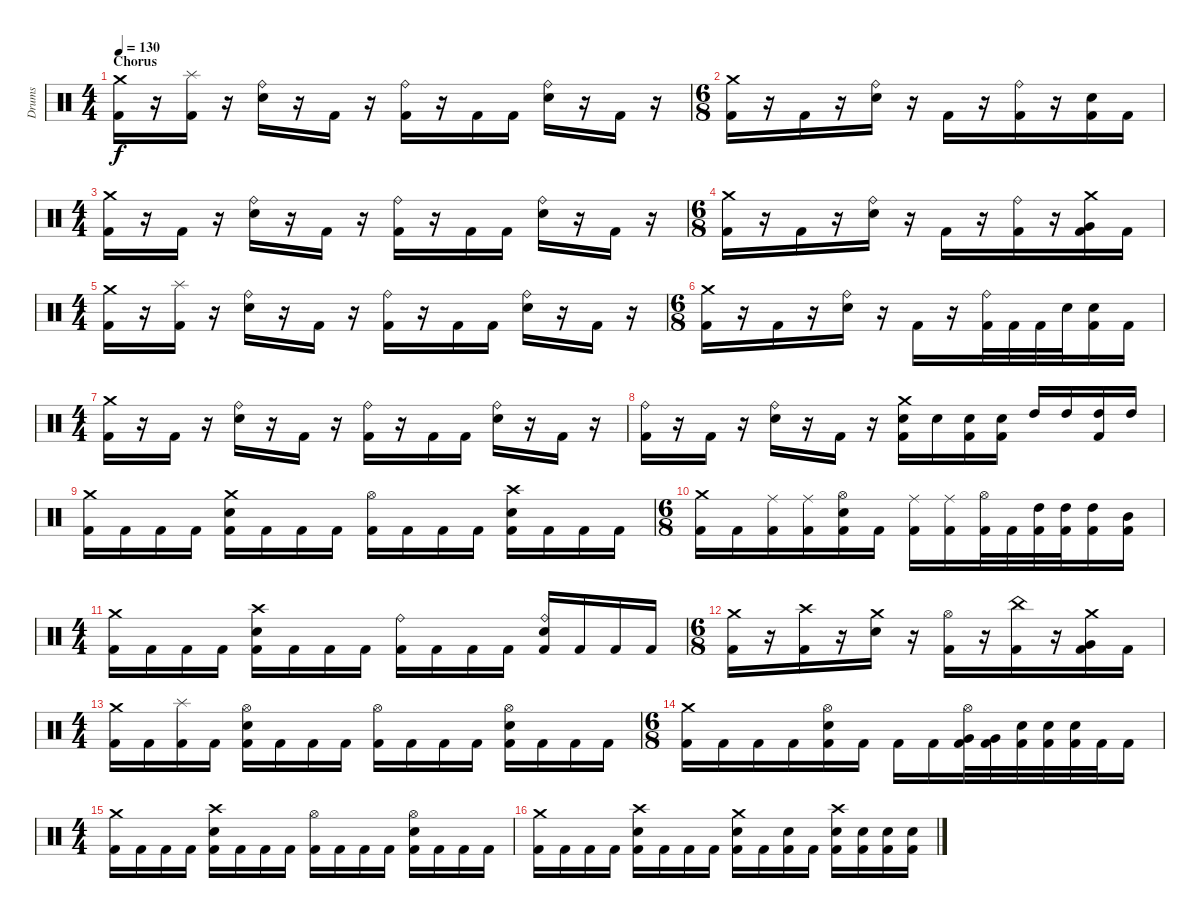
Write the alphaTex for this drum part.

\track ("Drums" "Drums") {instrument percussion}
\staff {score}
\articulation defaults
\ts (4 4)
\section ("" "Chorus")
\tempo 130
\clef neutral
\ks c
("Crash medium (hit)" "Kick (hit) 2").16{dy f} r.16 ("Splash (hit)" "Kick (hit) 2").16 r.16 ("Ride (bell)" "Electric Snare (hit)").16 r.16 "Kick (hit) 2".16 r.16 ("Ride (bell)" "Kick (hit) 2").16 r.16 "Kick (hit) 2".16 "Kick (hit) 2".16 ("Ride (bell)" "Electric Snare (hit)").16 r.16 "Kick (hit) 2".16 r.16 |
\ts (6 8)
("Crash medium (hit)" "Kick (hit) 2").16 r.16 "Kick (hit) 2".16 r.16 ("Ride (bell)" "Electric Snare (hit)").16 r.16 "Kick (hit) 2".16 r.16 ("Ride (bell)" "Kick (hit) 2").16 r.16 ("Electric Snare (hit)" "Kick (hit) 2").16 "Kick (hit) 2".16 |
\ts (4 4)
("Crash medium (hit)" "Kick (hit) 2").16 r.16 "Kick (hit) 2".16 r.16 ("Ride (bell)" "Electric Snare (hit)").16 r.16 "Kick (hit) 2".16 r.16 ("Ride (bell)" "Kick (hit) 2").16 r.16 "Kick (hit) 2".16 "Kick (hit) 2".16 ("Ride (bell)" "Electric Snare (hit)").16 r.16 "Kick (hit) 2".16 r.16 |
\ts (6 8)
("Crash medium (hit)" "Kick (hit) 2").16 r.16 "Kick (hit) 2".16 r.16 ("Ride (bell)" "Electric Snare (hit)").16 r.16 "Kick (hit) 2".16 r.16 ("Ride (bell)" "Kick (hit) 2").16 r.16 ("Crash medium (hit)" "Very Low Tom (hit)" "Kick (hit) 2").16 "Kick (hit) 2".16 |
\ts (4 4)
("Crash medium (hit)" "Kick (hit) 2").16 r.16 ("Splash (hit)" "Kick (hit) 2").16 r.16 ("Ride (bell)" "Electric Snare (hit)").16 r.16 "Kick (hit) 2".16 r.16 ("Ride (bell)" "Kick (hit) 2").16 r.16 "Kick (hit) 2".16 "Kick (hit) 2".16 ("Ride (bell)" "Electric Snare (hit)").16 r.16 "Kick (hit) 2".16 r.16 |
\ts (6 8)
("Crash medium (hit)" "Kick (hit) 2").16 r.16 "Kick (hit) 2".16 r.16 ("Ride (bell)" "Electric Snare (hit)").16 r.16 "Kick (hit) 2".16 r.16 ("Ride (bell)" "Kick (hit) 2").32 "Kick (hit) 2".32 "Kick (hit) 2".32 "Electric Snare (hit)".32 ("Electric Snare (hit)" "Kick (hit) 2").16 "Kick (hit) 2".16 |
\ts (4 4)
("Crash medium (hit)" "Kick (hit) 2").16 r.16 "Kick (hit) 2".16 r.16 ("Ride (bell)" "Electric Snare (hit)").16 r.16 "Kick (hit) 2".16 r.16 ("Ride (bell)" "Kick (hit) 2").16 r.16 "Kick (hit) 2".16 "Kick (hit) 2".16 ("Ride (bell)" "Electric Snare (hit)").16 r.16 "Kick (hit) 2".16 r.16 |
("Ride (bell)" "Kick (hit) 2").16 r.16 "Kick (hit) 2".16 r.16 ("Ride (bell)" "Electric Snare (hit)").16 r.16 "Kick (hit) 2".16 r.16 ("Crash medium (hit)" "Electric Snare (hit)" "Kick (hit) 2").16 "Electric Snare (hit)".16 ("Electric Snare (hit)" "Kick (hit) 2").16 ("Electric Snare (hit)" "Kick (hit) 2").16 "High Tom (hit)".16 "High Tom (hit)".16 ("High Tom (hit)" "Kick (hit) 2").16 "High Tom (hit)".16 |
("Crash medium (hit)" "Kick (hit) 2").16 "Kick (hit) 2".16 "Kick (hit) 2".16 "Kick (hit) 2".16 ("Crash medium (hit)" "Electric Snare (hit)" "Kick (hit) 2").16 "Kick (hit) 2".16 "Kick (hit) 2".16 "Kick (hit) 2".16 ("Hi-Hat (open)" "Kick (hit) 2").16 "Kick (hit) 2".16 "Kick (hit) 2".16 "Kick (hit) 2".16 ("Crash high (hit)" "Electric Snare (hit)" "Kick (hit) 2").16 "Kick (hit) 2".16 "Kick (hit) 2".16 "Kick (hit) 2".16 |
\ts (6 8)
("Crash medium (hit)" "Kick (hit) 2").16 "Kick (hit) 2".16 ("Ride (middle)" "Kick (hit) 2").16 ("Ride (middle)" "Kick (hit) 2").16 ("Hi-Hat (open)" "Electric Snare (hit)" "Kick (hit) 2").16 "Kick (hit) 2".16 ("Ride (middle)" "Kick (hit) 2").16 ("Ride (middle)" "Kick (hit) 2").16 ("Hi-Hat (open)" "Kick (hit) 2").32 "Kick (hit) 2".32 ("High Tom (hit)" "Kick (hit) 2").32 ("High Tom (hit)" "Kick (hit) 2").32 ("High Tom (hit)" "Kick (hit) 2").16 ("Mid Tom (hit)" "Kick (hit) 2").16 |
\ts (4 4)
("Crash medium (hit)" "Kick (hit) 2").16 "Kick (hit) 2".16 "Kick (hit) 2".16 "Kick (hit) 2".16 ("Crash high (hit)" "Electric Snare (hit)" "Kick (hit) 2").16 "Kick (hit) 2".16 "Kick (hit) 2".16 "Kick (hit) 2".16 ("Ride (bell)" "Kick (hit) 2").16 "Kick (hit) 2".16 "Kick (hit) 2".16 "Kick (hit) 2".16 ("Ride (bell)" "Electric Snare (hit)" "Kick (hit) 2").16 "Kick (hit) 2".16 "Kick (hit) 2".16 "Kick (hit) 2".16 |
\ts (6 8)
("Crash medium (hit)" "Kick (hit) 2").16 r.16 ("Crash high (hit)" "Kick (hit) 2").16 r.16 ("Crash medium (hit)" "Electric Snare (hit)").16 r.16 ("Hi-Hat (open)" "Kick (hit) 2").16 r.16 ("China (hit)" "Kick (hit) 2").16 r.16 ("Crash medium (hit)" "Very Low Tom (hit)" "Kick (hit) 2").16 "Kick (hit) 2".16 |
\ts (4 4)
("Crash medium (hit)" "Kick (hit) 2").16 "Kick (hit) 2".16 ("Splash (hit)" "Kick (hit) 2").16 "Kick (hit) 2".16 ("Hi-Hat (open)" "Electric Snare (hit)" "Kick (hit) 2").16 "Kick (hit) 2".16 "Kick (hit) 2".16 "Kick (hit) 2".16 ("Hi-Hat (open)" "Kick (hit) 2").16 "Kick (hit) 2".16 "Kick (hit) 2".16 "Kick (hit) 2".16 ("Hi-Hat (open)" "Electric Snare (hit)" "Kick (hit) 2").16 "Kick (hit) 2".16 "Kick (hit) 2".16 "Kick (hit) 2".16 |
\ts (6 8)
("Crash medium (hit)" "Kick (hit) 2").16 "Kick (hit) 2".16 "Kick (hit) 2".16 "Kick (hit) 2".16 ("Hi-Hat (open)" "Electric Snare (hit)" "Kick (hit) 2").16 "Kick (hit) 2".16 "Kick (hit) 2".16 "Kick (hit) 2".16 ("Hi-Hat (open)" "Very Low Tom (hit)" "Kick (hit) 2").32 ("Very Low Tom (hit)" "Kick (hit) 2").32 ("Electric Snare (hit)" "Kick (hit) 2").32 ("Electric Snare (hit)" "Kick (hit) 2").32 ("Electric Snare (hit)" "Kick (hit) 2").32 "Kick (hit) 2".32 "Kick (hit) 2".16 |
\ts (4 4)
("Crash medium (hit)" "Kick (hit) 2").16 "Kick (hit) 2".16 "Kick (hit) 2".16 "Kick (hit) 2".16 ("Crash high (hit)" "Electric Snare (hit)" "Kick (hit) 2").16 "Kick (hit) 2".16 "Kick (hit) 2".16 "Kick (hit) 2".16 ("Hi-Hat (open)" "Kick (hit) 2").16 "Kick (hit) 2".16 "Kick (hit) 2".16 "Kick (hit) 2".16 ("Hi-Hat (open)" "Electric Snare (hit)" "Kick (hit) 2").16 "Kick (hit) 2".16 "Kick (hit) 2".16 "Kick (hit) 2".16 |
("Crash medium (hit)" "Kick (hit) 2").16 "Kick (hit) 2".16 "Kick (hit) 2".16 "Kick (hit) 2".16 ("Crash high (hit)" "Electric Snare (hit)" "Kick (hit) 2").16 "Kick (hit) 2".16 "Kick (hit) 2".16 "Kick (hit) 2".16 ("Crash medium (hit)" "Electric Snare (hit)" "Kick (hit) 2").16 "Kick (hit) 2".16 ("Electric Snare (hit)" "Kick (hit) 2").16 "Kick (hit) 2".16 ("Crash high (hit)" "Electric Snare (hit)" "Kick (hit) 2").16 ("Electric Snare (hit)" "Kick (hit) 2").16 ("Electric Snare (hit)" "Kick (hit) 2").16 ("Electric Snare (hit)" "Kick (hit) 2").16
